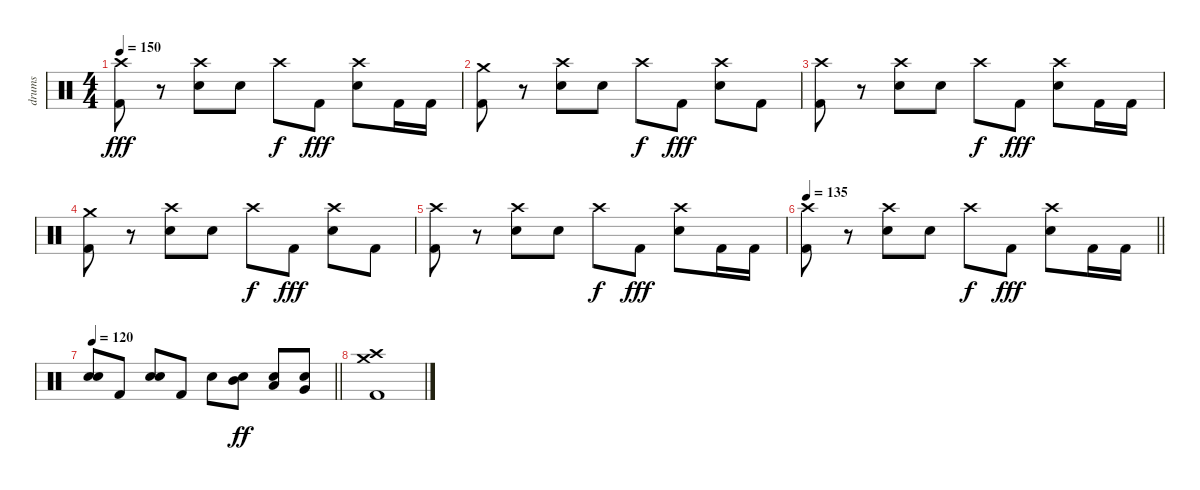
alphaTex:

\track ("drums" "drums") {instrument percussion}
\staff {score}
\articulation defaults
\ts (4 4)
\tempo 150
\clef neutral
\ks c
("Crash high (hit)" "Kick (hit) 2").8{dy fff} r.8 ("Crash high (hit)" "Snare (hit) 2").8 "Snare (hit) 2".8 "Crash high (hit)".8{dy f} "Kick (hit) 2".8{dy fff} ("Crash high (hit)" "Snare (hit) 2").8 "Kick (hit) 2".16 "Kick (hit) 2".16 |
("Crash medium (hit)" "Kick (hit) 2").8 r.8 ("Crash high (hit)" "Snare (hit) 2").8 "Snare (hit) 2".8 "Crash high (hit)".8{dy f} "Kick (hit) 2".8{dy fff} ("Crash high (hit)" "Snare (hit) 2").8 "Kick (hit) 2".8 |
("Crash high (hit)" "Kick (hit) 2").8 r.8 ("Crash high (hit)" "Snare (hit) 2").8 "Snare (hit) 2".8 "Crash high (hit)".8{dy f} "Kick (hit) 2".8{dy fff} ("Crash high (hit)" "Snare (hit) 2").8 "Kick (hit) 2".16 "Kick (hit) 2".16 |
("Crash medium (hit)" "Kick (hit) 2").8 r.8 ("Crash high (hit)" "Snare (hit) 2").8 "Snare (hit) 2".8 "Crash high (hit)".8{dy f} "Kick (hit) 2".8{dy fff} ("Crash high (hit)" "Snare (hit) 2").8 "Kick (hit) 2".8 |
("Crash high (hit)" "Kick (hit) 2").8 r.8 ("Crash high (hit)" "Snare (hit) 2").8 "Snare (hit) 2".8 "Crash high (hit)".8{dy f} "Kick (hit) 2".8{dy fff} ("Crash high (hit)" "Snare (hit) 2").8 "Kick (hit) 2".16 "Kick (hit) 2".16 |
\tempo 135
\barLineRight lightlight
("Crash high (hit)" "Kick (hit) 2").8 r.8 ("Crash high (hit)" "Snare (hit) 2").8 "Snare (hit) 2".8 "Crash high (hit)".8{dy f} "Kick (hit) 2".8{dy fff} ("Crash high (hit)" "Snare (hit) 2").8 "Kick (hit) 2".16 "Kick (hit) 2".16 |
\tempo 120
\barLineRight lightlight
("Snare (hit) 2" "Snare (hit) 2").8 "Kick (hit) 2".8 ("Snare (hit) 2" "Snare (hit) 2").8 "Kick (hit) 2".8 "Snare (hit) 2".8 ("Mid Tom (hit)" "Snare (hit) 2").8{dy ff} ("Low Tom (hit)" "Snare (hit) 2").8 ("Very Low Tom (hit)" "Snare (hit) 2").8 |
("Crash medium (hit)" "Crash high (hit)" "Kick (hit) 2").1
